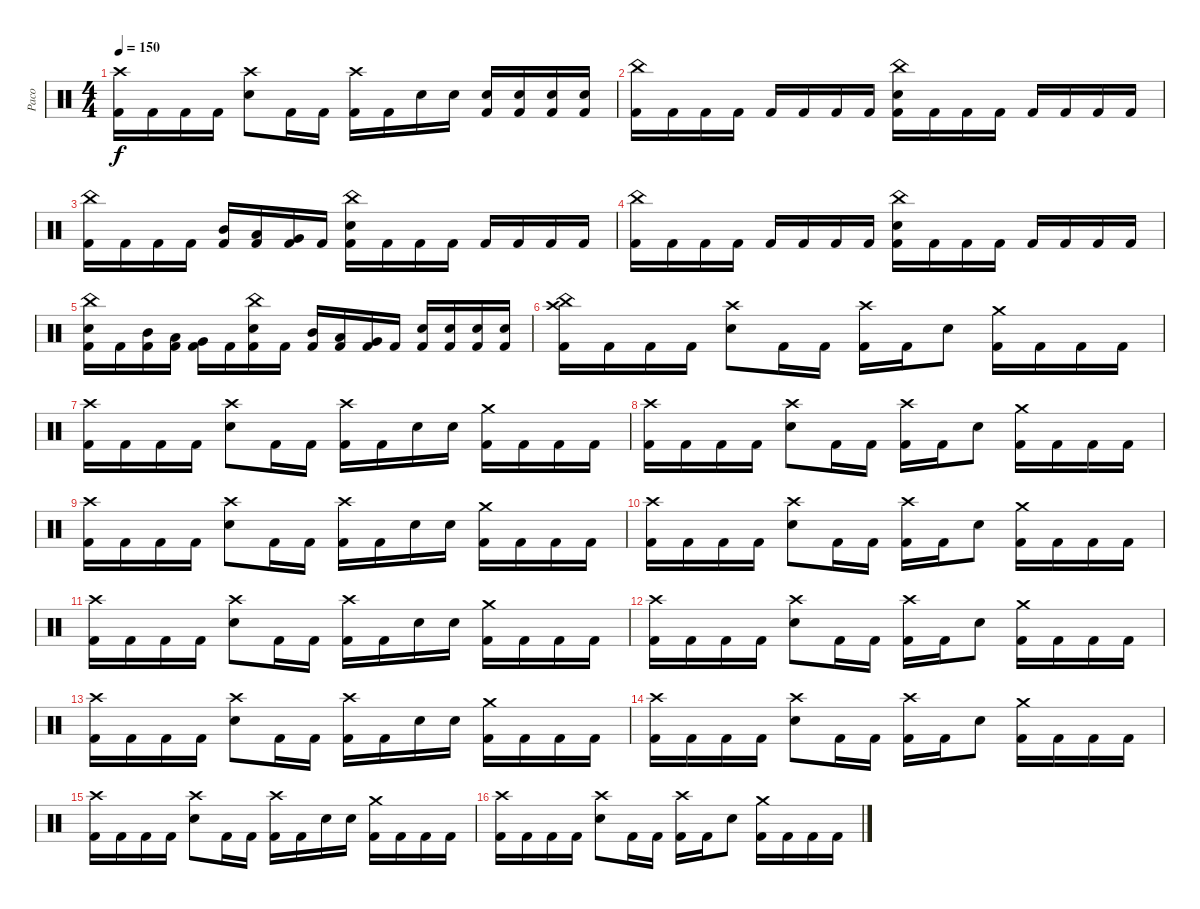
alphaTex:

\track ("Paco" "Paco") {instrument percussion}
\staff {score}
\articulation defaults
\ts (4 4)
\tempo 150
\clef neutral
\ks c
("Crash high (hit)" "Kick (hit) 2").16{dy f} "Kick (hit) 2".16 "Kick (hit) 2".16 "Kick (hit) 2".16 ("Crash high (hit)" "Electric Snare (hit)").8 "Kick (hit) 2".16 "Kick (hit) 2".16 ("Crash high (hit)" "Kick (hit) 2").16 "Kick (hit) 2".16 "Electric Snare (hit)".16 "Electric Snare (hit)".16 ("Electric Snare (hit)" "Kick (hit) 2").16 ("Electric Snare (hit)" "Kick (hit) 2").16 ("Electric Snare (hit)" "Kick (hit) 2").16 ("Electric Snare (hit)" "Kick (hit) 2").16 |
("China (hit)" "Kick (hit) 2").16 "Kick (hit) 2".16 "Kick (hit) 2".16 "Kick (hit) 2".16 "Kick (hit) 2".16 "Kick (hit) 2".16 "Kick (hit) 2".16 "Kick (hit) 2".16 ("China (hit)" "Electric Snare (hit)" "Kick (hit) 2").16 "Kick (hit) 2".16 "Kick (hit) 2".16 "Kick (hit) 2".16 "Kick (hit) 2".16 "Kick (hit) 2".16 "Kick (hit) 2".16 "Kick (hit) 2".16 |
("China (hit)" "Kick (hit) 2").16 "Kick (hit) 2".16 "Kick (hit) 2".16 "Kick (hit) 2".16 ("Mid Tom (hit)" "Kick (hit) 2").16 ("Low Tom (hit)" "Kick (hit) 2").16 ("Very Low Tom (hit)" "Kick (hit) 2").16 "Kick (hit) 2".16 ("China (hit)" "Electric Snare (hit)" "Kick (hit) 2").16 "Kick (hit) 2".16 "Kick (hit) 2".16 "Kick (hit) 2".16 "Kick (hit) 2".16 "Kick (hit) 2".16 "Kick (hit) 2".16 "Kick (hit) 2".16 |
("China (hit)" "Kick (hit) 2").16 "Kick (hit) 2".16 "Kick (hit) 2".16 "Kick (hit) 2".16 "Kick (hit) 2".16 "Kick (hit) 2".16 "Kick (hit) 2".16 "Kick (hit) 2".16 ("China (hit)" "Electric Snare (hit)" "Kick (hit) 2").16 "Kick (hit) 2".16 "Kick (hit) 2".16 "Kick (hit) 2".16 "Kick (hit) 2".16 "Kick (hit) 2".16 "Kick (hit) 2".16 "Kick (hit) 2".16 |
("China (hit)" "Electric Snare (hit)" "Kick (hit) 2").16 "Kick (hit) 2".16 ("Mid Tom (hit)" "Kick (hit) 2").16 ("Low Tom (hit)" "Kick (hit) 2").16 ("Very Low Tom (hit)" "Kick (hit) 2").16 "Kick (hit) 2".16 ("China (hit)" "Electric Snare (hit)" "Kick (hit) 2").16 "Kick (hit) 2".16 ("Mid Tom (hit)" "Kick (hit) 2").16 ("Low Tom (hit)" "Kick (hit) 2").16 ("Very Low Tom (hit)" "Kick (hit) 2").16 "Kick (hit) 2".16 ("Electric Snare (hit)" "Kick (hit) 2").16 ("Electric Snare (hit)" "Kick (hit) 2").16 ("Electric Snare (hit)" "Kick (hit) 2").16 ("Electric Snare (hit)" "Kick (hit) 2").16 |
("China (hit)" "Crash high (hit)" "Kick (hit) 2").16 "Kick (hit) 2".16 "Kick (hit) 2".16 "Kick (hit) 2".16 ("Crash high (hit)" "Electric Snare (hit)").8 "Kick (hit) 2".16 "Kick (hit) 2".16 ("Crash high (hit)" "Kick (hit) 2").16 "Kick (hit) 2".16 "Electric Snare (hit)".8 ("Crash medium (hit)" "Kick (hit) 2").16 "Kick (hit) 2".16 "Kick (hit) 2".16 "Kick (hit) 2".16 |
("Crash high (hit)" "Kick (hit) 2").16 "Kick (hit) 2".16 "Kick (hit) 2".16 "Kick (hit) 2".16 ("Crash high (hit)" "Electric Snare (hit)").8 "Kick (hit) 2".16 "Kick (hit) 2".16 ("Crash high (hit)" "Kick (hit) 2").16 "Kick (hit) 2".16 "Electric Snare (hit)".16 "Electric Snare (hit)".16 ("Crash medium (hit)" "Kick (hit) 2").16 "Kick (hit) 2".16 "Kick (hit) 2".16 "Kick (hit) 2".16 |
("Crash high (hit)" "Kick (hit) 2").16 "Kick (hit) 2".16 "Kick (hit) 2".16 "Kick (hit) 2".16 ("Crash high (hit)" "Electric Snare (hit)").8 "Kick (hit) 2".16 "Kick (hit) 2".16 ("Crash high (hit)" "Kick (hit) 2").16 "Kick (hit) 2".16 "Electric Snare (hit)".8 ("Crash medium (hit)" "Kick (hit) 2").16 "Kick (hit) 2".16 "Kick (hit) 2".16 "Kick (hit) 2".16 |
("Crash high (hit)" "Kick (hit) 2").16 "Kick (hit) 2".16 "Kick (hit) 2".16 "Kick (hit) 2".16 ("Crash high (hit)" "Electric Snare (hit)").8 "Kick (hit) 2".16 "Kick (hit) 2".16 ("Crash high (hit)" "Kick (hit) 2").16 "Kick (hit) 2".16 "Electric Snare (hit)".16 "Electric Snare (hit)".16 ("Crash medium (hit)" "Kick (hit) 2").16 "Kick (hit) 2".16 "Kick (hit) 2".16 "Kick (hit) 2".16 |
("Crash high (hit)" "Kick (hit) 2").16 "Kick (hit) 2".16 "Kick (hit) 2".16 "Kick (hit) 2".16 ("Crash high (hit)" "Electric Snare (hit)").8 "Kick (hit) 2".16 "Kick (hit) 2".16 ("Crash high (hit)" "Kick (hit) 2").16 "Kick (hit) 2".16 "Electric Snare (hit)".8 ("Crash medium (hit)" "Kick (hit) 2").16 "Kick (hit) 2".16 "Kick (hit) 2".16 "Kick (hit) 2".16 |
("Crash high (hit)" "Kick (hit) 2").16 "Kick (hit) 2".16 "Kick (hit) 2".16 "Kick (hit) 2".16 ("Crash high (hit)" "Electric Snare (hit)").8 "Kick (hit) 2".16 "Kick (hit) 2".16 ("Crash high (hit)" "Kick (hit) 2").16 "Kick (hit) 2".16 "Electric Snare (hit)".16 "Electric Snare (hit)".16 ("Crash medium (hit)" "Kick (hit) 2").16 "Kick (hit) 2".16 "Kick (hit) 2".16 "Kick (hit) 2".16 |
("Crash high (hit)" "Kick (hit) 2").16 "Kick (hit) 2".16 "Kick (hit) 2".16 "Kick (hit) 2".16 ("Crash high (hit)" "Electric Snare (hit)").8 "Kick (hit) 2".16 "Kick (hit) 2".16 ("Crash high (hit)" "Kick (hit) 2").16 "Kick (hit) 2".16 "Electric Snare (hit)".8 ("Crash medium (hit)" "Kick (hit) 2").16 "Kick (hit) 2".16 "Kick (hit) 2".16 "Kick (hit) 2".16 |
("Crash high (hit)" "Kick (hit) 2").16 "Kick (hit) 2".16 "Kick (hit) 2".16 "Kick (hit) 2".16 ("Crash high (hit)" "Electric Snare (hit)").8 "Kick (hit) 2".16 "Kick (hit) 2".16 ("Crash high (hit)" "Kick (hit) 2").16 "Kick (hit) 2".16 "Electric Snare (hit)".16 "Electric Snare (hit)".16 ("Crash medium (hit)" "Kick (hit) 2").16 "Kick (hit) 2".16 "Kick (hit) 2".16 "Kick (hit) 2".16 |
("Crash high (hit)" "Kick (hit) 2").16 "Kick (hit) 2".16 "Kick (hit) 2".16 "Kick (hit) 2".16 ("Crash high (hit)" "Electric Snare (hit)").8 "Kick (hit) 2".16 "Kick (hit) 2".16 ("Crash high (hit)" "Kick (hit) 2").16 "Kick (hit) 2".16 "Electric Snare (hit)".8 ("Crash medium (hit)" "Kick (hit) 2").16 "Kick (hit) 2".16 "Kick (hit) 2".16 "Kick (hit) 2".16 |
("Crash high (hit)" "Kick (hit) 2").16 "Kick (hit) 2".16 "Kick (hit) 2".16 "Kick (hit) 2".16 ("Crash high (hit)" "Electric Snare (hit)").8 "Kick (hit) 2".16 "Kick (hit) 2".16 ("Crash high (hit)" "Kick (hit) 2").16 "Kick (hit) 2".16 "Electric Snare (hit)".16 "Electric Snare (hit)".16 ("Crash medium (hit)" "Kick (hit) 2").16 "Kick (hit) 2".16 "Kick (hit) 2".16 "Kick (hit) 2".16 |
("Crash high (hit)" "Kick (hit) 2").16 "Kick (hit) 2".16 "Kick (hit) 2".16 "Kick (hit) 2".16 ("Crash high (hit)" "Electric Snare (hit)").8 "Kick (hit) 2".16 "Kick (hit) 2".16 ("Crash high (hit)" "Kick (hit) 2").16 "Kick (hit) 2".16 "Electric Snare (hit)".8 ("Crash medium (hit)" "Kick (hit) 2").16 "Kick (hit) 2".16 "Kick (hit) 2".16 "Kick (hit) 2".16
